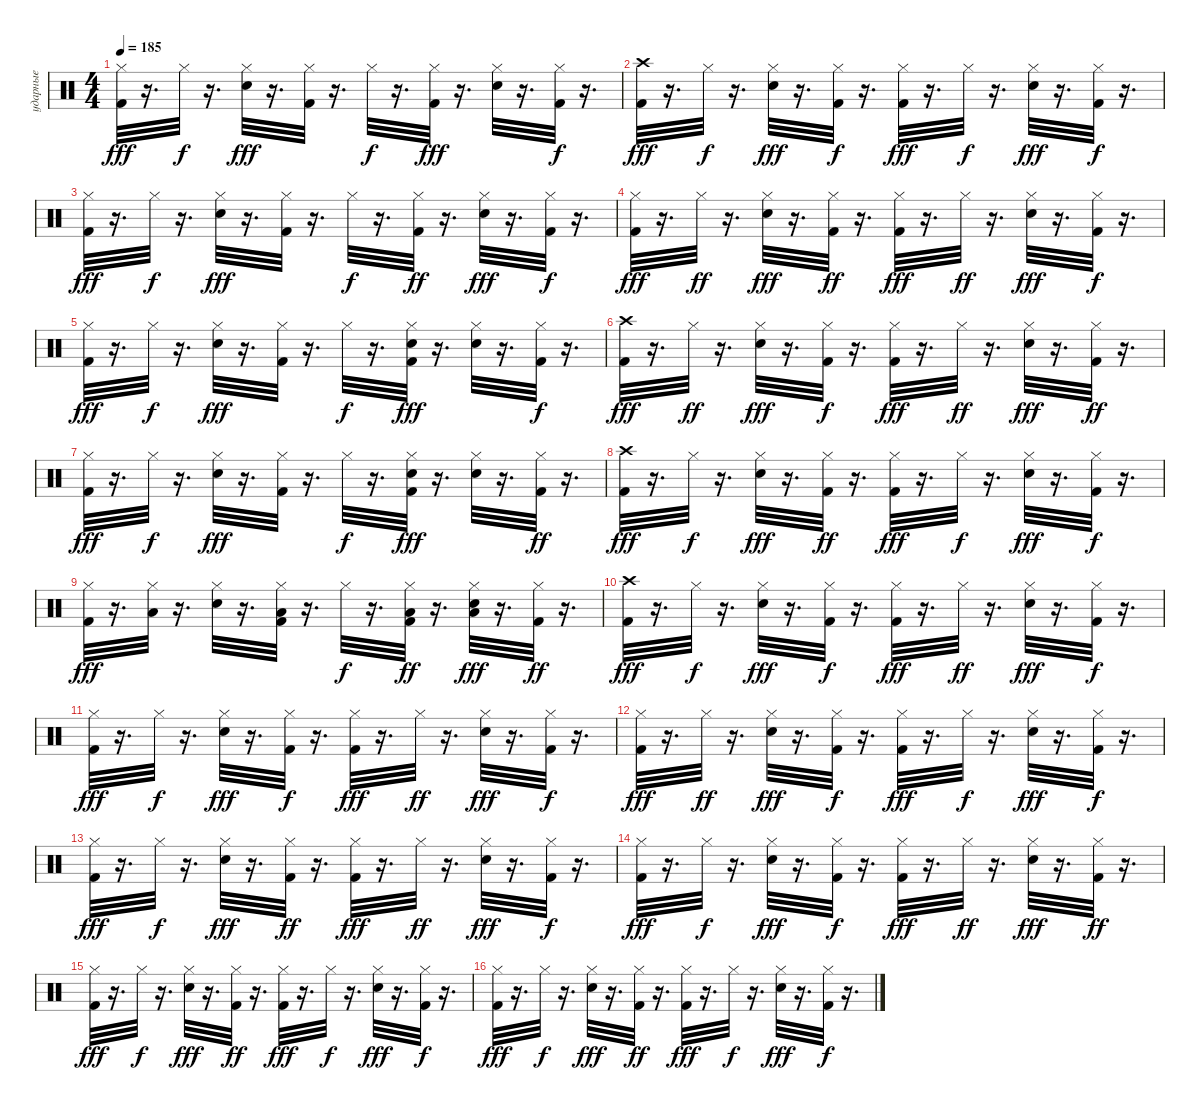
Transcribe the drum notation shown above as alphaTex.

\track ("ударные" "ударные") {instrument percussion}
\staff {score}
\articulation defaults
\ts (4 4)
\tempo 185
\clef neutral
\ks c
("Hi-Hat (closed)" "Kick (hit) 2").32{dy fff} r.16{d} "Hi-Hat (closed)".32{dy f} r.16{d} ("Hi-Hat (closed)" "Electric Snare (hit)").32{dy fff} r.16{d} ("Hi-Hat (closed)" "Kick (hit) 2").32 r.16{d} "Hi-Hat (closed)".32{dy f} r.16{d} ("Kick (hit) 2" "Hi-Hat (closed)").32{dy fff} r.16{d} ("Hi-Hat (closed)" "Electric Snare (hit)").32 r.16{d} ("Hi-Hat (closed)" "Kick (hit) 2").32{dy f} r.16{d} |
("Crash high (hit)" "Kick (hit) 2").32{dy fff} r.16{d} "Hi-Hat (closed)".32{dy f} r.16{d} ("Hi-Hat (closed)" "Electric Snare (hit)").32{dy fff} r.16{d} ("Hi-Hat (closed)" "Kick (hit) 2").32{dy f} r.16{d} ("Hi-Hat (closed)" "Kick (hit) 2").32{dy fff} r.16{d} "Hi-Hat (closed)".32{dy f} r.16{d} ("Hi-Hat (closed)" "Electric Snare (hit)").32{dy fff} r.16{d} ("Hi-Hat (closed)" "Kick (hit) 2").32{dy f} r.16{d} |
("Hi-Hat (closed)" "Kick (hit) 2").32{dy fff} r.16{d} "Hi-Hat (closed)".32{dy f} r.16{d} ("Hi-Hat (closed)" "Electric Snare (hit)").32{dy fff} r.16{d} ("Hi-Hat (closed)" "Kick (hit) 2").32 r.16{d} "Hi-Hat (closed)".32{dy f} r.16{d} ("Kick (hit) 2" "Hi-Hat (closed)").32{dy ff} r.16{d} ("Hi-Hat (closed)" "Electric Snare (hit)").32{dy fff} r.16{d} ("Hi-Hat (closed)" "Kick (hit) 2").32{dy f} r.16{d} |
("Hi-Hat (closed)" "Kick (hit) 2").32{dy fff} r.16{d} "Hi-Hat (closed)".32{dy ff} r.16{d} ("Hi-Hat (closed)" "Electric Snare (hit)").32{dy fff} r.16{d} ("Hi-Hat (closed)" "Kick (hit) 2").32{dy ff} r.16{d} ("Hi-Hat (closed)" "Kick (hit) 2").32{dy fff} r.16{d} "Hi-Hat (closed)".32{dy ff} r.16{d} ("Hi-Hat (closed)" "Electric Snare (hit)").32{dy fff} r.16{d} ("Hi-Hat (closed)" "Kick (hit) 2").32{dy f} r.16{d} |
("Hi-Hat (closed)" "Kick (hit) 2").32{dy fff} r.16{d} "Hi-Hat (closed)".32{dy f} r.16{d} ("Hi-Hat (closed)" "Electric Snare (hit)").32{dy fff} r.16{d} ("Hi-Hat (closed)" "Kick (hit) 2").32 r.16{d} "Hi-Hat (closed)".32{dy f} r.16{d} ("Electric Snare (hit)" "Kick (hit) 2" "Hi-Hat (closed)").32{dy fff} r.16{d} ("Hi-Hat (closed)" "Electric Snare (hit)").32 r.16{d} ("Hi-Hat (closed)" "Kick (hit) 2").32{dy f} r.16{d} |
("Crash high (hit)" "Kick (hit) 2").32{dy fff} r.16{d} "Hi-Hat (closed)".32{dy ff} r.16{d} ("Hi-Hat (closed)" "Electric Snare (hit)").32{dy fff} r.16{d} ("Hi-Hat (closed)" "Kick (hit) 2").32{dy f} r.16{d} ("Hi-Hat (closed)" "Kick (hit) 2").32{dy fff} r.16{d} "Hi-Hat (closed)".32{dy ff} r.16{d} ("Hi-Hat (closed)" "Electric Snare (hit)").32{dy fff} r.16{d} ("Hi-Hat (closed)" "Kick (hit) 2").32{dy ff} r.16{d} |
("Hi-Hat (closed)" "Kick (hit) 2").32{dy fff} r.16{d} "Hi-Hat (closed)".32{dy f} r.16{d} ("Hi-Hat (closed)" "Electric Snare (hit)").32{dy fff} r.16{d} ("Hi-Hat (closed)" "Kick (hit) 2").32 r.16{d} "Hi-Hat (closed)".32{dy f} r.16{d} ("Electric Snare (hit)" "Kick (hit) 2" "Hi-Hat (closed)").32{dy fff} r.16{d} ("Hi-Hat (closed)" "Electric Snare (hit)").32 r.16{d} ("Hi-Hat (closed)" "Kick (hit) 2").32{dy ff} r.16{d} |
("Crash high (hit)" "Kick (hit) 2").32{dy fff} r.16{d} "Hi-Hat (closed)".32{dy f} r.16{d} ("Hi-Hat (closed)" "Electric Snare (hit)").32{dy fff} r.16{d} ("Hi-Hat (closed)" "Kick (hit) 2").32{dy ff} r.16{d} ("Hi-Hat (closed)" "Kick (hit) 2").32{dy fff} r.16{d} "Hi-Hat (closed)".32{dy f} r.16{d} ("Hi-Hat (closed)" "Electric Snare (hit)").32{dy fff} r.16{d} ("Hi-Hat (closed)" "Kick (hit) 2").32{dy f} r.16{d} |
("Hi-Hat (closed)" "Kick (hit) 2").32{dy fff} r.16{d} ("Low Floor Tom (hit)" "Hi-Hat (closed)").32 r.16{d} ("Hi-Hat (closed)" "Electric Snare (hit)").32 r.16{d} ("Low Floor Tom (hit)" "Hi-Hat (closed)" "Kick (hit) 2").32 r.16{d} "Hi-Hat (closed)".32{dy f} r.16{d} ("Low Floor Tom (hit)" "Kick (hit) 2" "Hi-Hat (closed)").32{dy ff} r.16{d} ("Low Floor Tom (hit)" "Hi-Hat (closed)" "Electric Snare (hit)").32{dy fff} r.16{d} ("Hi-Hat (closed)" "Kick (hit) 2").32{dy ff} r.16{d} |
("Crash high (hit)" "Kick (hit) 2").32{dy fff} r.16{d} "Hi-Hat (closed)".32{dy f} r.16{d} ("Hi-Hat (closed)" "Electric Snare (hit)").32{dy fff} r.16{d} ("Hi-Hat (closed)" "Kick (hit) 2").32{dy f} r.16{d} ("Hi-Hat (closed)" "Kick (hit) 2").32{dy fff} r.16{d} "Hi-Hat (closed)".32{dy ff} r.16{d} ("Hi-Hat (closed)" "Electric Snare (hit)").32{dy fff} r.16{d} ("Hi-Hat (closed)" "Kick (hit) 2").32{dy f} r.16{d} |
("Hi-Hat (closed)" "Kick (hit) 2").32{dy fff} r.16{d} "Hi-Hat (closed)".32{dy f} r.16{d} ("Hi-Hat (closed)" "Electric Snare (hit)").32{dy fff} r.16{d} ("Hi-Hat (closed)" "Kick (hit) 2").32{dy f} r.16{d} ("Hi-Hat (closed)" "Kick (hit) 2").32{dy fff} r.16{d} "Hi-Hat (closed)".32{dy ff} r.16{d} ("Hi-Hat (closed)" "Electric Snare (hit)").32{dy fff} r.16{d} ("Hi-Hat (closed)" "Kick (hit) 2").32{dy f} r.16{d} |
("Hi-Hat (closed)" "Kick (hit) 2").32{dy fff} r.16{d} "Hi-Hat (closed)".32{dy ff} r.16{d} ("Hi-Hat (closed)" "Electric Snare (hit)").32{dy fff} r.16{d} ("Hi-Hat (closed)" "Kick (hit) 2").32{dy f} r.16{d} ("Hi-Hat (closed)" "Kick (hit) 2").32{dy fff} r.16{d} "Hi-Hat (closed)".32{dy f} r.16{d} ("Hi-Hat (closed)" "Electric Snare (hit)").32{dy fff} r.16{d} ("Hi-Hat (closed)" "Kick (hit) 2").32{dy f} r.16{d} |
("Hi-Hat (closed)" "Kick (hit) 2").32{dy fff} r.16{d} "Hi-Hat (closed)".32{dy f} r.16{d} ("Hi-Hat (closed)" "Electric Snare (hit)").32{dy fff} r.16{d} ("Hi-Hat (closed)" "Kick (hit) 2").32{dy ff} r.16{d} ("Hi-Hat (closed)" "Kick (hit) 2").32{dy fff} r.16{d} "Hi-Hat (closed)".32{dy ff} r.16{d} ("Hi-Hat (closed)" "Electric Snare (hit)").32{dy fff} r.16{d} ("Hi-Hat (closed)" "Kick (hit) 2").32{dy f} r.16{d} |
("Hi-Hat (closed)" "Kick (hit) 2").32{dy fff} r.16{d} "Hi-Hat (closed)".32{dy f} r.16{d} ("Hi-Hat (closed)" "Electric Snare (hit)").32{dy fff} r.16{d} ("Hi-Hat (closed)" "Kick (hit) 2").32{dy f} r.16{d} ("Hi-Hat (closed)" "Kick (hit) 2").32{dy fff} r.16{d} "Hi-Hat (closed)".32{dy ff} r.16{d} ("Hi-Hat (closed)" "Electric Snare (hit)").32{dy fff} r.16{d} ("Hi-Hat (closed)" "Kick (hit) 2").32{dy ff} r.16{d} |
("Hi-Hat (closed)" "Kick (hit) 2").32{dy fff} r.16{d} "Hi-Hat (closed)".32{dy f} r.16{d} ("Hi-Hat (closed)" "Electric Snare (hit)").32{dy fff} r.16{d} ("Hi-Hat (closed)" "Kick (hit) 2").32{dy ff} r.16{d} ("Hi-Hat (closed)" "Kick (hit) 2").32{dy fff} r.16{d} "Hi-Hat (closed)".32{dy f} r.16{d} ("Hi-Hat (closed)" "Electric Snare (hit)").32{dy fff} r.16{d} ("Hi-Hat (closed)" "Kick (hit) 2").32{dy f} r.16{d} |
("Hi-Hat (closed)" "Kick (hit) 2").32{dy fff} r.16{d} "Hi-Hat (closed)".32{dy f} r.16{d} ("Hi-Hat (closed)" "Electric Snare (hit)").32{dy fff} r.16{d} ("Hi-Hat (closed)" "Kick (hit) 2").32{dy ff} r.16{d} ("Hi-Hat (closed)" "Kick (hit) 2").32{dy fff} r.16{d} "Hi-Hat (closed)".32{dy f} r.16{d} ("Hi-Hat (closed)" "Electric Snare (hit)").32{dy fff} r.16{d} ("Hi-Hat (closed)" "Kick (hit) 2").32{dy f} r.16{d}
